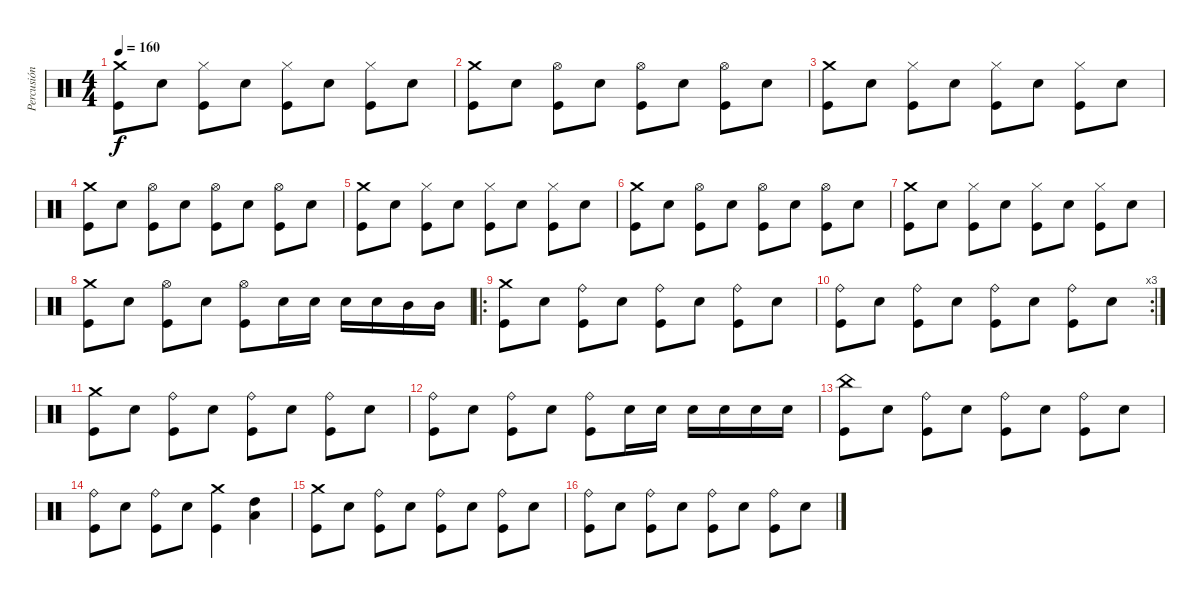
\track ("Percusión" "Percusión") {instrument percussion}
\staff {score}
\articulation defaults
\ts (4 4)
\tempo 160
\clef neutral
\ks c
("Kick (hit)" "Crash medium (hit)").8{dy f} "Snare (hit) 2".8 ("Kick (hit)" "Hi-Hat (closed)").8 "Snare (hit) 2".8 ("Kick (hit)" "Hi-Hat (closed)").8 "Snare (hit) 2".8 ("Kick (hit)" "Hi-Hat (closed)").8 "Snare (hit) 2".8 |
("Kick (hit)" "Crash medium (hit)").8 "Snare (hit) 2".8 ("Kick (hit)" "Hi-Hat (open)").8 "Snare (hit) 2".8 ("Kick (hit)" "Hi-Hat (open)").8 "Snare (hit) 2".8 ("Kick (hit)" "Hi-Hat (open)").8 "Snare (hit) 2".8 |
("Kick (hit)" "Crash medium (hit)").8 "Snare (hit) 2".8 ("Kick (hit)" "Hi-Hat (closed)").8 "Snare (hit) 2".8 ("Kick (hit)" "Hi-Hat (closed)").8 "Snare (hit) 2".8 ("Kick (hit)" "Hi-Hat (closed)").8 "Snare (hit) 2".8 |
("Kick (hit)" "Crash medium (hit)").8 "Snare (hit) 2".8 ("Kick (hit)" "Hi-Hat (open)").8 "Snare (hit) 2".8 ("Kick (hit)" "Hi-Hat (open)").8 "Snare (hit) 2".8 ("Kick (hit)" "Hi-Hat (open)").8 "Snare (hit) 2".8 |
("Kick (hit)" "Crash medium (hit)").8 "Snare (hit) 2".8 ("Kick (hit)" "Hi-Hat (closed)").8 "Snare (hit) 2".8 ("Kick (hit)" "Hi-Hat (closed)").8 "Snare (hit) 2".8 ("Kick (hit)" "Hi-Hat (closed)").8 "Snare (hit) 2".8 |
("Kick (hit)" "Crash medium (hit)").8 "Snare (hit) 2".8 ("Kick (hit)" "Hi-Hat (open)").8 "Snare (hit) 2".8 ("Kick (hit)" "Hi-Hat (open)").8 "Snare (hit) 2".8 ("Kick (hit)" "Hi-Hat (open)").8 "Snare (hit) 2".8 |
("Kick (hit)" "Crash medium (hit)").8 "Snare (hit) 2".8 ("Kick (hit)" "Hi-Hat (closed)").8 "Snare (hit) 2".8 ("Kick (hit)" "Hi-Hat (closed)").8 "Snare (hit) 2".8 ("Kick (hit)" "Hi-Hat (closed)").8 "Snare (hit) 2".8 |
("Kick (hit)" "Crash medium (hit)").8 "Snare (hit) 2".8 ("Kick (hit)" "Hi-Hat (open)").8 "Snare (hit) 2".8 ("Kick (hit)" "Hi-Hat (open)").8 "Snare (hit) 2".16 "Snare (hit) 2".16 "Snare (hit) 2".16 "Snare (hit) 2".16 "Mid Tom (hit)".16 "Mid Tom (hit)".16 |
\ro
("Kick (hit)" "Crash medium (hit)").8 "Snare (hit) 2".8 ("Kick (hit)" "Ride (bell)").8 "Snare (hit) 2".8 ("Kick (hit)" "Ride (bell)").8 "Snare (hit) 2".8 ("Kick (hit)" "Ride (bell)").8 "Snare (hit) 2".8 |
\rc 3
("Kick (hit)" "Ride (bell)").8 "Snare (hit) 2".8 ("Kick (hit)" "Ride (bell)").8 "Snare (hit) 2".8 ("Kick (hit)" "Ride (bell)").8 "Snare (hit) 2".8 ("Kick (hit)" "Ride (bell)").8 "Snare (hit) 2".8 |
("Kick (hit)" "Crash medium (hit)").8 "Snare (hit) 2".8 ("Kick (hit)" "Ride (bell)").8 "Snare (hit) 2".8 ("Kick (hit)" "Ride (bell)").8 "Snare (hit) 2".8 ("Kick (hit)" "Ride (bell)").8 "Snare (hit) 2".8 |
("Kick (hit)" "Ride (bell)").8 "Snare (hit) 2".8 ("Kick (hit)" "Ride (bell)").8 "Snare (hit) 2".8 ("Kick (hit)" "Ride (bell)").8 "Snare (hit) 2".16 "Snare (hit) 2".16 "Snare (hit) 2".16 "Snare (hit) 2".16 "Snare (hit) 2".16 "Snare (hit) 2".16 |
("Kick (hit)" "China (hit)").8 "Snare (hit) 2".8 ("Kick (hit)" "Ride (bell)").8 "Snare (hit) 2".8 ("Kick (hit)" "Ride (bell)").8 "Snare (hit) 2".8 ("Kick (hit)" "Ride (bell)").8 "Snare (hit) 2".8 |
("Kick (hit)" "Ride (bell)").8 "Snare (hit) 2".8 ("Kick (hit)" "Ride (bell)").8 "Snare (hit) 2".8 ("Kick (hit)" "Crash medium (hit)").4 ("Low Tom (hit)" "High Tom (hit)").4 |
("Kick (hit)" "Crash medium (hit)").8 "Snare (hit) 2".8 ("Kick (hit)" "Ride (bell)").8 "Snare (hit) 2".8 ("Kick (hit)" "Ride (bell)").8 "Snare (hit) 2".8 ("Kick (hit)" "Ride (bell)").8 "Snare (hit) 2".8 |
("Kick (hit)" "Ride (bell)").8 "Snare (hit) 2".8 ("Kick (hit)" "Ride (bell)").8 "Snare (hit) 2".8 ("Kick (hit)" "Ride (bell)").8 "Snare (hit) 2".8 ("Kick (hit)" "Ride (bell)").8 "Snare (hit) 2".8
